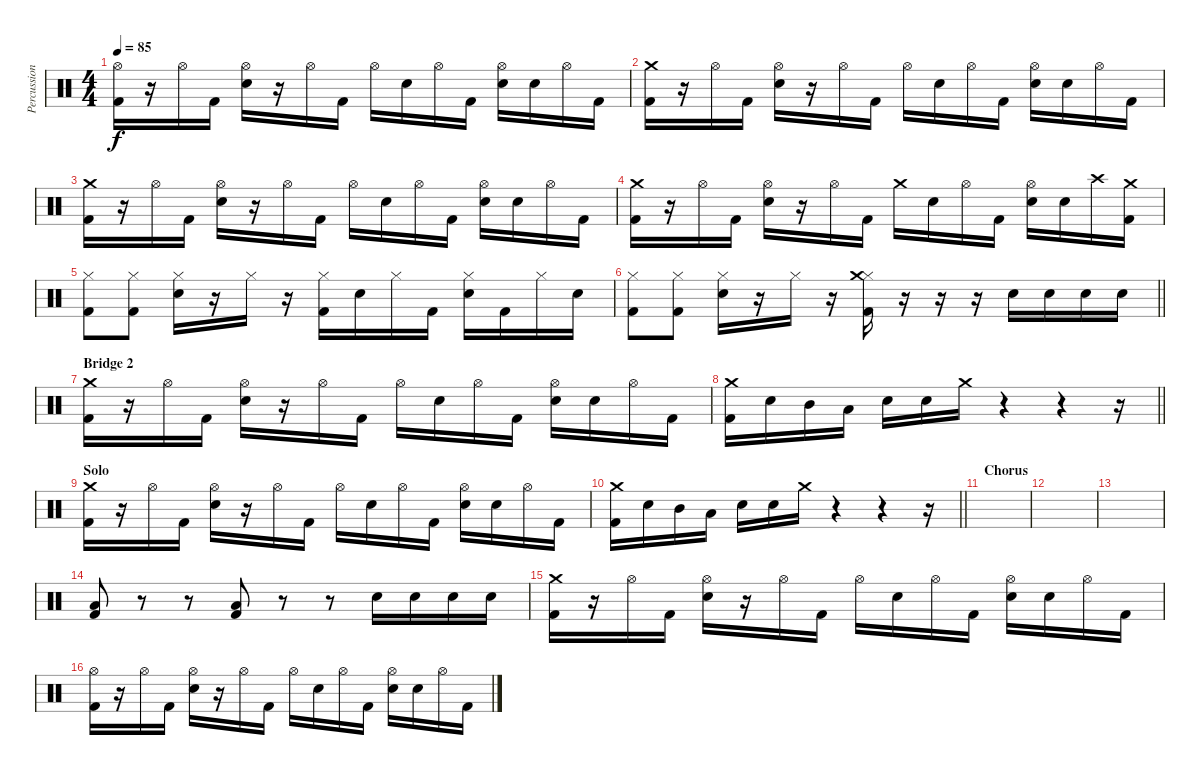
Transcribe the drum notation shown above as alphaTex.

\track ("Percussion" "Percussion") {instrument percussion}
\staff {score}
\articulation defaults
\ts (4 4)
\tempo 85
\clef neutral
\ks c
("Hi-Hat (open)" "Kick (hit) 2").16{dy f} r.16 "Hi-Hat (open)".16 "Kick (hit) 2".16 ("Hi-Hat (open)" "Electric Snare (hit)").16 r.16 "Hi-Hat (open)".16 "Kick (hit) 2".16 "Hi-Hat (open)".16 "Electric Snare (hit)".16 "Hi-Hat (open)".16 "Kick (hit) 2".16 ("Hi-Hat (open)" "Electric Snare (hit)").16 "Electric Snare (hit)".16 "Hi-Hat (open)".16 "Kick (hit) 2".16 |
("Crash medium (hit)" "Kick (hit) 2").16 r.16 "Hi-Hat (open)".16 "Kick (hit) 2".16 ("Hi-Hat (open)" "Electric Snare (hit)").16 r.16 "Hi-Hat (open)".16 "Kick (hit) 2".16 "Hi-Hat (open)".16 "Electric Snare (hit)".16 "Hi-Hat (open)".16 "Kick (hit) 2".16 ("Hi-Hat (open)" "Electric Snare (hit)").16 "Electric Snare (hit)".16 "Hi-Hat (open)".16 "Kick (hit) 2".16 |
("Crash medium (hit)" "Kick (hit) 2").16 r.16 "Hi-Hat (open)".16 "Kick (hit) 2".16 ("Hi-Hat (open)" "Electric Snare (hit)").16 r.16 "Hi-Hat (open)".16 "Kick (hit) 2".16 "Hi-Hat (open)".16 "Electric Snare (hit)".16 "Hi-Hat (open)".16 "Kick (hit) 2".16 ("Hi-Hat (open)" "Electric Snare (hit)").16 "Electric Snare (hit)".16 "Hi-Hat (open)".16 "Kick (hit) 2".16 |
("Crash medium (hit)" "Kick (hit) 2").16 r.16 "Hi-Hat (open)".16 "Kick (hit) 2".16 ("Hi-Hat (open)" "Electric Snare (hit)").16 r.16 "Hi-Hat (open)".16 "Kick (hit) 2".16 "Crash medium (hit)".16 "Electric Snare (hit)".16 "Hi-Hat (open)".16 "Kick (hit) 2".16 ("Hi-Hat (open)" "Electric Snare (hit)").16 "Electric Snare (hit)".16 "Crash high (hit)".16 ("Crash medium (hit)" "Kick (hit) 2").16 |
("Hi-Hat (closed)" "Kick (hit) 2").8 ("Hi-Hat (closed)" "Kick (hit) 2").8 ("Hi-Hat (closed)" "Electric Snare (hit)").16 r.16 "Hi-Hat (closed)".16 r.16 ("Hi-Hat (closed)" "Kick (hit) 2").16 "Electric Snare (hit)".16 "Hi-Hat (closed)".16 "Kick (hit) 2".16 ("Hi-Hat (closed)" "Electric Snare (hit)").16 "Kick (hit) 2".16 "Hi-Hat (closed)".16 "Electric Snare (hit)".16 |
\barLineRight lightlight
("Hi-Hat (closed)" "Kick (hit) 2").8 ("Hi-Hat (closed)" "Kick (hit) 2").8 ("Hi-Hat (closed)" "Electric Snare (hit)").16 r.16 "Hi-Hat (closed)".16 r.16 ("Hi-Hat (closed)" "Crash medium (hit)" "Kick (hit) 2").16 r.16 r.16 r.16 "Electric Snare (hit)".16 "Electric Snare (hit)".16 "Electric Snare (hit)".16 "Electric Snare (hit)".16 |
\section ("" "Bridge 2 ")
("Crash medium (hit)" "Kick (hit) 2").16 r.16 "Hi-Hat (open)".16 "Kick (hit) 2".16 ("Hi-Hat (open)" "Electric Snare (hit)").16 r.16 "Hi-Hat (open)".16 "Kick (hit) 2".16 "Hi-Hat (open)".16 "Electric Snare (hit)".16 "Hi-Hat (open)".16 "Kick (hit) 2".16 ("Hi-Hat (open)" "Electric Snare (hit)").16 "Electric Snare (hit)".16 "Hi-Hat (open)".16 "Kick (hit) 2".16 |
\barLineRight lightlight
("Crash medium (hit)" "Kick (hit) 2").16 "Electric Snare (hit)".16 "Mid Tom (hit)".16 "Low Tom (hit)".16 "Electric Snare (hit)".16 "Electric Snare (hit)".16 "Crash medium (hit)".16 r.4 r.4 r.16 |
\section ("" "Solo")
("Crash medium (hit)" "Kick (hit) 2").16 r.16 "Hi-Hat (open)".16 "Kick (hit) 2".16 ("Hi-Hat (open)" "Electric Snare (hit)").16 r.16 "Hi-Hat (open)".16 "Kick (hit) 2".16 "Hi-Hat (open)".16 "Electric Snare (hit)".16 "Hi-Hat (open)".16 "Kick (hit) 2".16 ("Hi-Hat (open)" "Electric Snare (hit)").16 "Electric Snare (hit)".16 "Hi-Hat (open)".16 "Kick (hit) 2".16 |
\barLineRight lightlight
("Crash medium (hit)" "Kick (hit) 2").16 "Electric Snare (hit)".16 "Mid Tom (hit)".16 "Low Tom (hit)".16 "Electric Snare (hit)".16 "Electric Snare (hit)".16 "Crash medium (hit)".16 r.4 r.4 r.16 |
\section ("" "Chorus")
|
|
|
("Low Tom (hit)" "Kick (hit) 2").8 r.8 r.8 ("Low Tom (hit)" "Kick (hit) 2").8 r.8 r.8 "Electric Snare (hit)".16 "Electric Snare (hit)".16 "Electric Snare (hit)".16 "Electric Snare (hit)".16 |
("Crash medium (hit)" "Kick (hit) 2").16 r.16 "Hi-Hat (open)".16 "Kick (hit) 2".16 ("Hi-Hat (open)" "Electric Snare (hit)").16 r.16 "Hi-Hat (open)".16 "Kick (hit) 2".16 "Hi-Hat (open)".16 "Electric Snare (hit)".16 "Hi-Hat (open)".16 "Kick (hit) 2".16 ("Hi-Hat (open)" "Electric Snare (hit)").16 "Electric Snare (hit)".16 "Hi-Hat (open)".16 "Kick (hit) 2".16 |
("Hi-Hat (open)" "Kick (hit) 2").16 r.16 "Hi-Hat (open)".16 "Kick (hit) 2".16 ("Hi-Hat (open)" "Electric Snare (hit)").16 r.16 "Hi-Hat (open)".16 "Kick (hit) 2".16 "Hi-Hat (open)".16 "Electric Snare (hit)".16 "Hi-Hat (open)".16 "Kick (hit) 2".16 ("Hi-Hat (open)" "Electric Snare (hit)").16 "Electric Snare (hit)".16 "Hi-Hat (open)".16 "Kick (hit) 2".16
